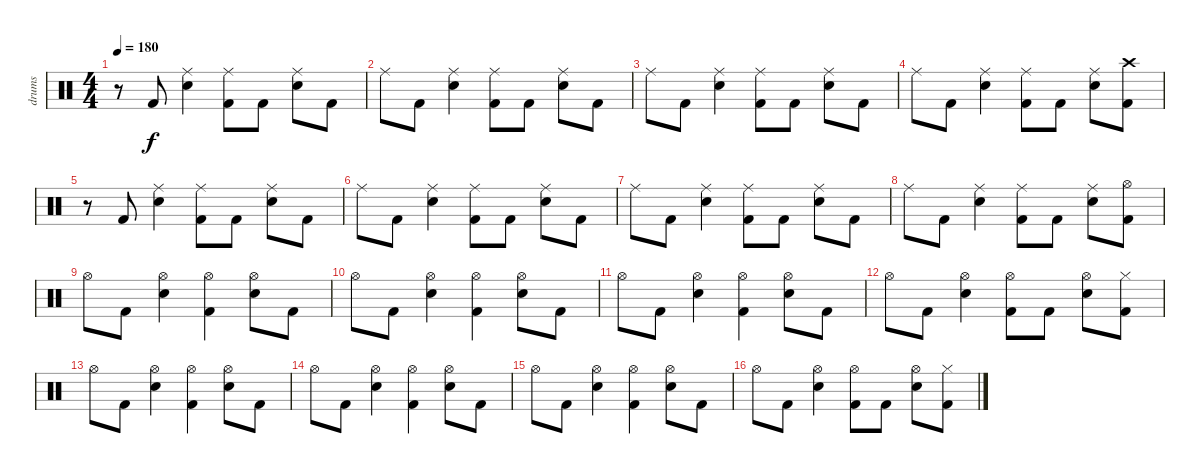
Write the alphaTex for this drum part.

\track ("drums" "drums") {instrument percussion}
\staff {score}
\articulation defaults
\ts (4 4)
\tempo 180
\clef neutral
\ks c
r.8{dy f} "Kick (hit) 2".8 ("Ride (middle)" "Electric Snare (hit)").4 ("Ride (middle)" "Kick (hit) 2").8 "Kick (hit) 2".8 ("Ride (middle)" "Electric Snare (hit)").8 "Kick (hit) 2".8 |
"Ride (middle)".8 "Kick (hit) 2".8 ("Ride (middle)" "Electric Snare (hit)").4 ("Ride (middle)" "Kick (hit) 2").8 "Kick (hit) 2".8 ("Ride (middle)" "Electric Snare (hit)").8 "Kick (hit) 2".8 |
"Ride (middle)".8 "Kick (hit) 2".8 ("Ride (middle)" "Electric Snare (hit)").4 ("Ride (middle)" "Kick (hit) 2").8 "Kick (hit) 2".8 ("Ride (middle)" "Electric Snare (hit)").8 "Kick (hit) 2".8 |
"Ride (middle)".8 "Kick (hit) 2".8 ("Ride (middle)" "Electric Snare (hit)").4 ("Ride (middle)" "Kick (hit) 2").8 "Kick (hit) 2".8 ("Ride (middle)" "Electric Snare (hit)").8 ("Crash high (hit)" "Kick (hit) 2").8 |
r.8 "Kick (hit) 2".8 ("Ride (middle)" "Electric Snare (hit)").4 ("Ride (middle)" "Kick (hit) 2").8 "Kick (hit) 2".8 ("Ride (middle)" "Electric Snare (hit)").8 "Kick (hit) 2".8 |
"Ride (middle)".8 "Kick (hit) 2".8 ("Ride (middle)" "Electric Snare (hit)").4 ("Ride (middle)" "Kick (hit) 2").8 "Kick (hit) 2".8 ("Ride (middle)" "Electric Snare (hit)").8 "Kick (hit) 2".8 |
"Ride (middle)".8 "Kick (hit) 2".8 ("Ride (middle)" "Electric Snare (hit)").4 ("Ride (middle)" "Kick (hit) 2").8 "Kick (hit) 2".8 ("Ride (middle)" "Electric Snare (hit)").8 "Kick (hit) 2".8 |
"Ride (middle)".8 "Kick (hit) 2".8 ("Ride (middle)" "Electric Snare (hit)").4 ("Ride (middle)" "Kick (hit) 2").8 "Kick (hit) 2".8 ("Ride (middle)" "Electric Snare (hit)").8 ("Hi-Hat (open)" "Kick (hit) 2").8 |
"Hi-Hat (open)".8 "Kick (hit) 2".8 ("Hi-Hat (open)" "Electric Snare (hit)").4 ("Hi-Hat (open)" "Kick (hit) 2").4 ("Hi-Hat (open)" "Electric Snare (hit)").8 "Kick (hit) 2".8 |
"Hi-Hat (open)".8 "Kick (hit) 2".8 ("Hi-Hat (open)" "Electric Snare (hit)").4 ("Hi-Hat (open)" "Kick (hit) 2").4 ("Hi-Hat (open)" "Electric Snare (hit)").8 "Kick (hit) 2".8 |
"Hi-Hat (open)".8 "Kick (hit) 2".8 ("Hi-Hat (open)" "Electric Snare (hit)").4 ("Hi-Hat (open)" "Kick (hit) 2").4 ("Hi-Hat (open)" "Electric Snare (hit)").8 "Kick (hit) 2".8 |
"Hi-Hat (open)".8 "Kick (hit) 2".8 ("Hi-Hat (open)" "Electric Snare (hit)").4 ("Hi-Hat (open)" "Kick (hit) 2").8 "Kick (hit) 2".8 ("Hi-Hat (open)" "Electric Snare (hit)").8 ("Hi-Hat (closed)" "Kick (hit) 2").8 |
"Hi-Hat (open)".8 "Kick (hit) 2".8 ("Hi-Hat (open)" "Electric Snare (hit)").4 ("Hi-Hat (open)" "Kick (hit) 2").4 ("Hi-Hat (open)" "Electric Snare (hit)").8 "Kick (hit) 2".8 |
"Hi-Hat (open)".8 "Kick (hit) 2".8 ("Hi-Hat (open)" "Electric Snare (hit)").4 ("Hi-Hat (open)" "Kick (hit) 2").4 ("Hi-Hat (open)" "Electric Snare (hit)").8 "Kick (hit) 2".8 |
"Hi-Hat (open)".8 "Kick (hit) 2".8 ("Hi-Hat (open)" "Electric Snare (hit)").4 ("Hi-Hat (open)" "Kick (hit) 2").4 ("Hi-Hat (open)" "Electric Snare (hit)").8 "Kick (hit) 2".8 |
"Hi-Hat (open)".8 "Kick (hit) 2".8 ("Hi-Hat (open)" "Electric Snare (hit)").4 ("Hi-Hat (open)" "Kick (hit) 2").8 "Kick (hit) 2".8 ("Hi-Hat (open)" "Electric Snare (hit)").8 ("Hi-Hat (closed)" "Kick (hit) 2").8
